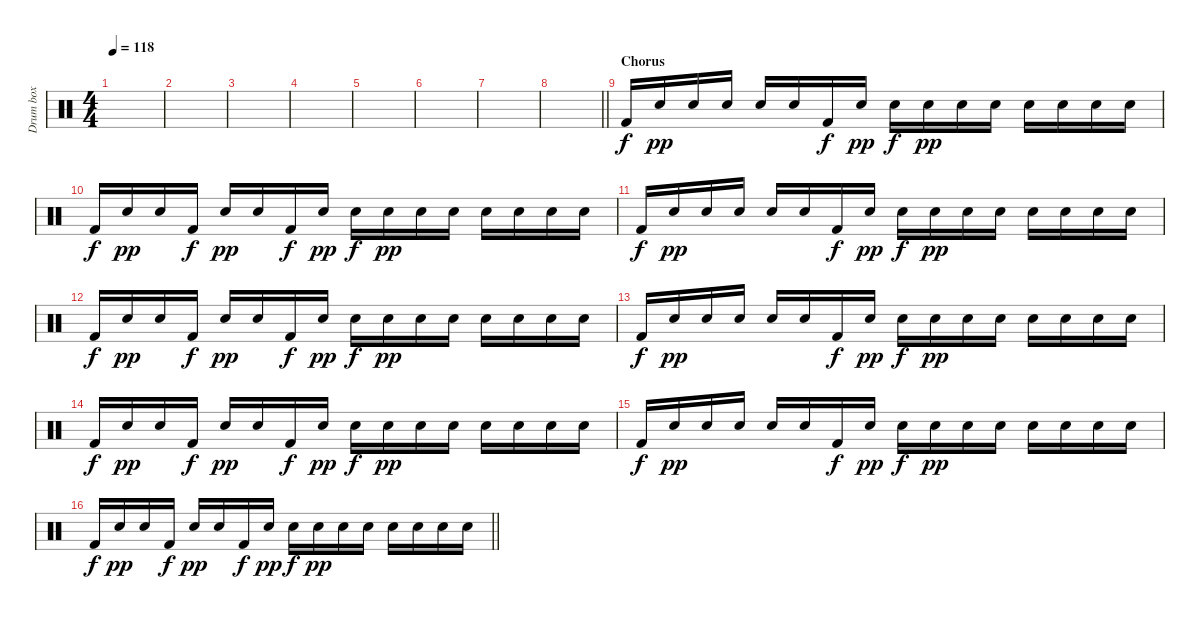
\track ("Drum box" "Drum box") {instrument percussion}
\staff {score}
\articulation defaults
\ts (4 4)
\tempo 118
\clef neutral
\ks c
|
|
|
|
|
|
|
\barLineRight lightlight
|
\section ("" "Chorus")
"Kick (hit) 2".16 "Snare (hit) 2".16{dy pp} "Snare (hit) 2".16 "Snare (hit) 2".16 "Snare (hit) 2".16 "Snare (hit) 2".16 "Kick (hit) 2".16{dy f} "Snare (hit) 2".16{dy pp} "Snare (hit) 2".16{dy f} "Snare (hit) 2".16{dy pp} "Snare (hit) 2".16 "Snare (hit) 2".16 "Snare (hit) 2".16 "Snare (hit) 2".16 "Snare (hit) 2".16 "Snare (hit) 2".16 |
"Kick (hit) 2".16{dy f} "Snare (hit) 2".16{dy pp} "Snare (hit) 2".16 "Kick (hit) 2".16{dy f} "Snare (hit) 2".16{dy pp} "Snare (hit) 2".16 "Kick (hit) 2".16{dy f} "Snare (hit) 2".16{dy pp} "Snare (hit) 2".16{dy f} "Snare (hit) 2".16{dy pp} "Snare (hit) 2".16 "Snare (hit) 2".16 "Snare (hit) 2".16 "Snare (hit) 2".16 "Snare (hit) 2".16 "Snare (hit) 2".16 |
"Kick (hit) 2".16{dy f} "Snare (hit) 2".16{dy pp} "Snare (hit) 2".16 "Snare (hit) 2".16 "Snare (hit) 2".16 "Snare (hit) 2".16 "Kick (hit) 2".16{dy f} "Snare (hit) 2".16{dy pp} "Snare (hit) 2".16{dy f} "Snare (hit) 2".16{dy pp} "Snare (hit) 2".16 "Snare (hit) 2".16 "Snare (hit) 2".16 "Snare (hit) 2".16 "Snare (hit) 2".16 "Snare (hit) 2".16 |
"Kick (hit) 2".16{dy f} "Snare (hit) 2".16{dy pp} "Snare (hit) 2".16 "Kick (hit) 2".16{dy f} "Snare (hit) 2".16{dy pp} "Snare (hit) 2".16 "Kick (hit) 2".16{dy f} "Snare (hit) 2".16{dy pp} "Snare (hit) 2".16{dy f} "Snare (hit) 2".16{dy pp} "Snare (hit) 2".16 "Snare (hit) 2".16 "Snare (hit) 2".16 "Snare (hit) 2".16 "Snare (hit) 2".16 "Snare (hit) 2".16 |
"Kick (hit) 2".16{dy f} "Snare (hit) 2".16{dy pp} "Snare (hit) 2".16 "Snare (hit) 2".16 "Snare (hit) 2".16 "Snare (hit) 2".16 "Kick (hit) 2".16{dy f} "Snare (hit) 2".16{dy pp} "Snare (hit) 2".16{dy f} "Snare (hit) 2".16{dy pp} "Snare (hit) 2".16 "Snare (hit) 2".16 "Snare (hit) 2".16 "Snare (hit) 2".16 "Snare (hit) 2".16 "Snare (hit) 2".16 |
"Kick (hit) 2".16{dy f} "Snare (hit) 2".16{dy pp} "Snare (hit) 2".16 "Kick (hit) 2".16{dy f} "Snare (hit) 2".16{dy pp} "Snare (hit) 2".16 "Kick (hit) 2".16{dy f} "Snare (hit) 2".16{dy pp} "Snare (hit) 2".16{dy f} "Snare (hit) 2".16{dy pp} "Snare (hit) 2".16 "Snare (hit) 2".16 "Snare (hit) 2".16 "Snare (hit) 2".16 "Snare (hit) 2".16 "Snare (hit) 2".16 |
"Kick (hit) 2".16{dy f} "Snare (hit) 2".16{dy pp} "Snare (hit) 2".16 "Snare (hit) 2".16 "Snare (hit) 2".16 "Snare (hit) 2".16 "Kick (hit) 2".16{dy f} "Snare (hit) 2".16{dy pp} "Snare (hit) 2".16{dy f} "Snare (hit) 2".16{dy pp} "Snare (hit) 2".16 "Snare (hit) 2".16 "Snare (hit) 2".16 "Snare (hit) 2".16 "Snare (hit) 2".16 "Snare (hit) 2".16 |
\barLineRight lightlight "Kick (hit) 2".16{dy f} "Snare (hit) 2".16{dy pp} "Snare (hit) 2".16 "Kick (hit) 2".16{dy f} "Snare (hit) 2".16{dy pp} "Snare (hit) 2".16 "Kick (hit) 2".16{dy f} "Snare (hit) 2".16{dy pp} "Snare (hit) 2".16{dy f} "Snare (hit) 2".16{dy pp} "Snare (hit) 2".16 "Snare (hit) 2".16 "Snare (hit) 2".16 "Snare (hit) 2".16 "Snare (hit) 2".16 "Snare (hit) 2".16
